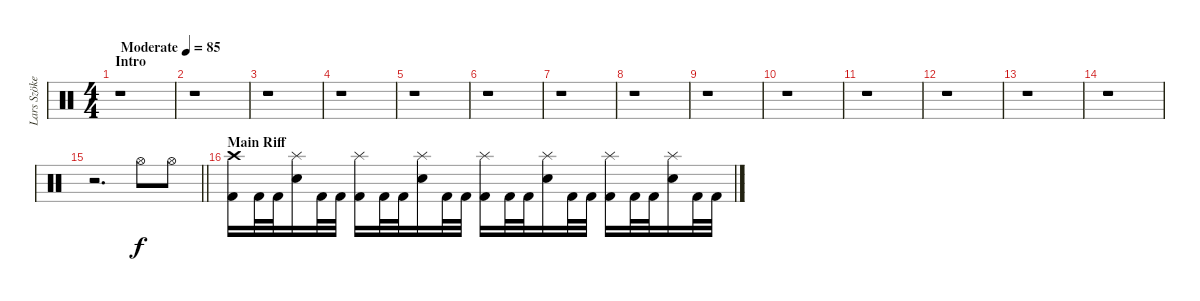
\track ("Lars Szöke" "Lars Szöke") {instrument percussion}
\staff {score}
\articulation defaults
\ts (4 4)
\section ("" "Intro")
\tempo (85 "Moderate")
\clef neutral
\ks c
r.1{dy f} |
r.1 |
r.1 |
r.1 |
r.1 |
r.1 |
r.1 |
r.1 |
r.1 |
r.1 |
r.1 |
r.1 |
r.1 |
r.1 |
\barLineRight lightlight
r.2{d} "Hi-Hat (open)".8 "Hi-Hat (open)".8 |
\section ("" "Main Riff")
("Crash high (hit)" "Kick (hit) 2").16 "Kick (hit) 2".32 "Kick (hit) 2".32 ("Splash (hit)" "Snare (hit) 2").16 "Kick (hit) 2".32 "Kick (hit) 2".32 ("Splash (hit)" "Kick (hit) 2").16 "Kick (hit) 2".32 "Kick (hit) 2".32 ("Splash (hit)" "Snare (hit) 2").16 "Kick (hit) 2".32 "Kick (hit) 2".32 ("Splash (hit)" "Kick (hit) 2").16 "Kick (hit) 2".32 "Kick (hit) 2".32 ("Splash (hit)" "Snare (hit) 2").16 "Kick (hit) 2".32 "Kick (hit) 2".32 ("Splash (hit)" "Kick (hit) 2").16 "Kick (hit) 2".32 "Kick (hit) 2".32 ("Splash (hit)" "Snare (hit) 2").16 "Kick (hit) 2".32 "Kick (hit) 2".32
